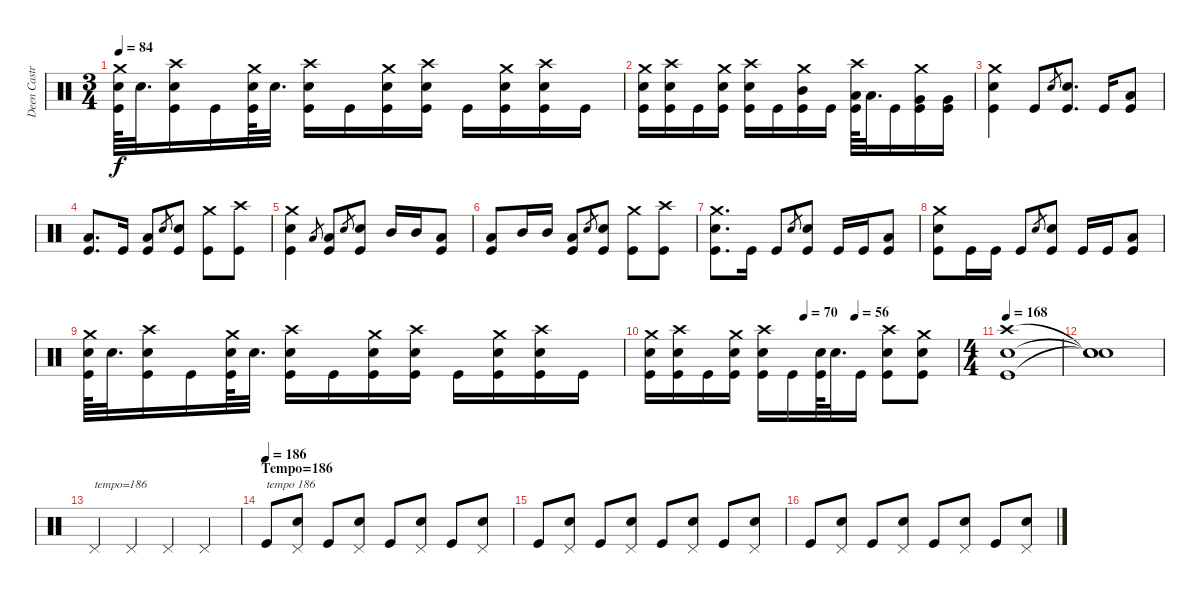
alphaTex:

\track ("Deen Castronovo" "Deen Castr") {instrument percussion}
\staff {score}
\articulation defaults
\ts (3 4)
\tempo 84
\clef neutral
\ks c
("Crash medium (hit)" "Snare (hit) 2" "Kick (hit)").64{dy f} "Snare (hit) 2".32{d} ("Crash high (hit)" "Snare (hit) 2" "Kick (hit)").16 "Kick (hit)".16 ("Crash medium (hit)" "Snare (hit) 2" "Kick (hit)").64 "Snare (hit) 2".32{d} ("Crash high (hit)" "Snare (hit) 2" "Kick (hit)").16 "Kick (hit)".16 ("Crash medium (hit)" "Snare (hit) 2" "Kick (hit)").16 ("Crash high (hit)" "Snare (hit) 2" "Kick (hit)").16 "Kick (hit)".16 ("Crash medium (hit)" "Snare (hit) 2" "Kick (hit)").16 ("Crash high (hit)" "Snare (hit) 2" "Kick (hit)").16 "Kick (hit)".16 |
("Crash medium (hit)" "Snare (hit) 2" "Kick (hit)").16 ("Crash high (hit)" "Snare (hit) 2" "Kick (hit)").16 "Kick (hit)".16 ("Crash medium (hit)" "Snare (hit) 2" "Kick (hit)").16 ("Crash high (hit)" "Snare (hit) 2" "Kick (hit)").16 "Kick (hit)".16 ("Crash medium (hit)" "Mid Tom (hit)" "Kick (hit)").16 "Kick (hit)".16 ("Crash high (hit)" "Low Tom (hit)" "Kick (hit)").64 "Low Tom (hit)".32{d} "Kick (hit)".16 ("Crash medium (hit)" "Very Low Tom (hit)" "Kick (hit)").16 ("Very Low Tom (hit)" "Kick (hit)").16 |
("Crash medium (hit)" "Snare (hit) 2" "Kick (hit)").4 "Kick (hit)".8 "Snare (hit) 2".8{gr} ("Snare (hit) 2" "Kick (hit)").8{d} "Kick (hit)".16 ("Low Tom (hit)" "Kick (hit)").8 |
("Low Tom (hit)" "Kick (hit)").8{d} "Kick (hit)".16 ("Low Tom (hit)" "Kick (hit)").8 "Snare (hit) 2".8{gr} ("Snare (hit) 2" "Kick (hit)").8 ("Crash medium (hit)" "Kick (hit)").8 ("Crash high (hit)" "Kick (hit)").8 |
("Crash medium (hit)" "Snare (hit) 2" "Kick (hit)").4 "Low Tom (hit)".8{gr} ("Low Tom (hit)" "Kick (hit)").8 "Snare (hit) 2".8{gr} ("Snare (hit) 2" "Kick (hit)").8 "Mid Tom (hit)".16 "Mid Tom (hit)".16 ("Low Tom (hit)" "Kick (hit)").8 |
("Low Tom (hit)" "Kick (hit)").8 "Mid Tom (hit)".16 "Mid Tom (hit)".16 ("Low Tom (hit)" "Kick (hit)").8 "Snare (hit) 2".8{gr} ("Snare (hit) 2" "Kick (hit)").8 ("Crash medium (hit)" "Kick (hit)").8 ("Crash high (hit)" "Kick (hit)").8 |
("Crash medium (hit)" "Snare (hit) 2" "Kick (hit)").8{d} "Kick (hit)".16 "Kick (hit)".8 "Snare (hit) 2".8{gr} ("Snare (hit) 2" "Kick (hit)").8 "Kick (hit)".16 "Kick (hit)".16 ("Low Tom (hit)" "Kick (hit)").8 |
("Crash medium (hit)" "Snare (hit) 2" "Kick (hit)").8 "Kick (hit)".16 "Kick (hit)".16 "Kick (hit)".8 "Snare (hit) 2".8{gr} ("Snare (hit) 2" "Kick (hit)").8 "Kick (hit)".16 "Kick (hit)".16 ("Low Tom (hit)" "Kick (hit)").8 |
("Crash medium (hit)" "Snare (hit) 2" "Kick (hit)").64 "Snare (hit) 2".32{d} ("Crash high (hit)" "Snare (hit) 2" "Kick (hit)").16 "Kick (hit)".16 ("Crash medium (hit)" "Snare (hit) 2" "Kick (hit)").64 "Snare (hit) 2".32{d} ("Crash high (hit)" "Snare (hit) 2" "Kick (hit)").16 "Kick (hit)".16 ("Crash medium (hit)" "Snare (hit) 2" "Kick (hit)").16 ("Crash high (hit)" "Snare (hit) 2" "Kick (hit)").16 "Kick (hit)".16 ("Crash medium (hit)" "Snare (hit) 2" "Kick (hit)").16 ("Crash high (hit)" "Snare (hit) 2" "Kick (hit)").16 "Kick (hit)".16 |
\tempo (70 0.5)
\tempo (56 0.6666666666666666)
("Crash medium (hit)" "Snare (hit) 2" "Kick (hit)").16 ("Crash high (hit)" "Snare (hit) 2" "Kick (hit)").16 "Kick (hit)".16 ("Crash medium (hit)" "Snare (hit) 2" "Kick (hit)").16 ("Crash high (hit)" "Snare (hit) 2" "Kick (hit)").16 "Kick (hit)".16 ("Snare (hit) 2" "Kick (hit)").64 "Snare (hit) 2".32{d} "Kick (hit)".16 ("Crash high (hit)" "Snare (hit) 2" "Kick (hit)").8 ("Crash medium (hit)" "Snare (hit) 2" "Kick (hit)").8 |
\ts (4 4)
\tempo 168
("Crash high (hit)" "Snare (hit) 2" "Kick (hit)").1 |
("Snare (hit)"{t} "Snare (hit)"{t} "Snare (hit)"{t}).1 |
"Pedal Hi-Hat (hit)".4{txt "tempo=186"} "Pedal Hi-Hat (hit)".4 "Pedal Hi-Hat (hit)".4 "Pedal Hi-Hat (hit)".4 |
\section ("" "Tempo=186")
\tempo (186)
"Kick (hit)".8{txt "tempo 186"} ("Pedal Hi-Hat (hit)" "Snare (hit) 2").8 "Kick (hit)".8 ("Pedal Hi-Hat (hit)" "Snare (hit) 2").8 "Kick (hit)".8 ("Pedal Hi-Hat (hit)" "Snare (hit) 2").8 "Kick (hit)".8 ("Pedal Hi-Hat (hit)" "Snare (hit) 2").8 |
"Kick (hit)".8 ("Pedal Hi-Hat (hit)" "Snare (hit) 2").8 "Kick (hit)".8 ("Pedal Hi-Hat (hit)" "Snare (hit) 2").8 "Kick (hit)".8 ("Pedal Hi-Hat (hit)" "Snare (hit) 2").8 "Kick (hit)".8 ("Pedal Hi-Hat (hit)" "Snare (hit) 2").8 |
"Kick (hit)".8 ("Pedal Hi-Hat (hit)" "Snare (hit) 2").8 "Kick (hit)".8 ("Pedal Hi-Hat (hit)" "Snare (hit) 2").8 "Kick (hit)".8 ("Pedal Hi-Hat (hit)" "Snare (hit) 2").8 "Kick (hit)".8 ("Pedal Hi-Hat (hit)" "Snare (hit) 2").8
